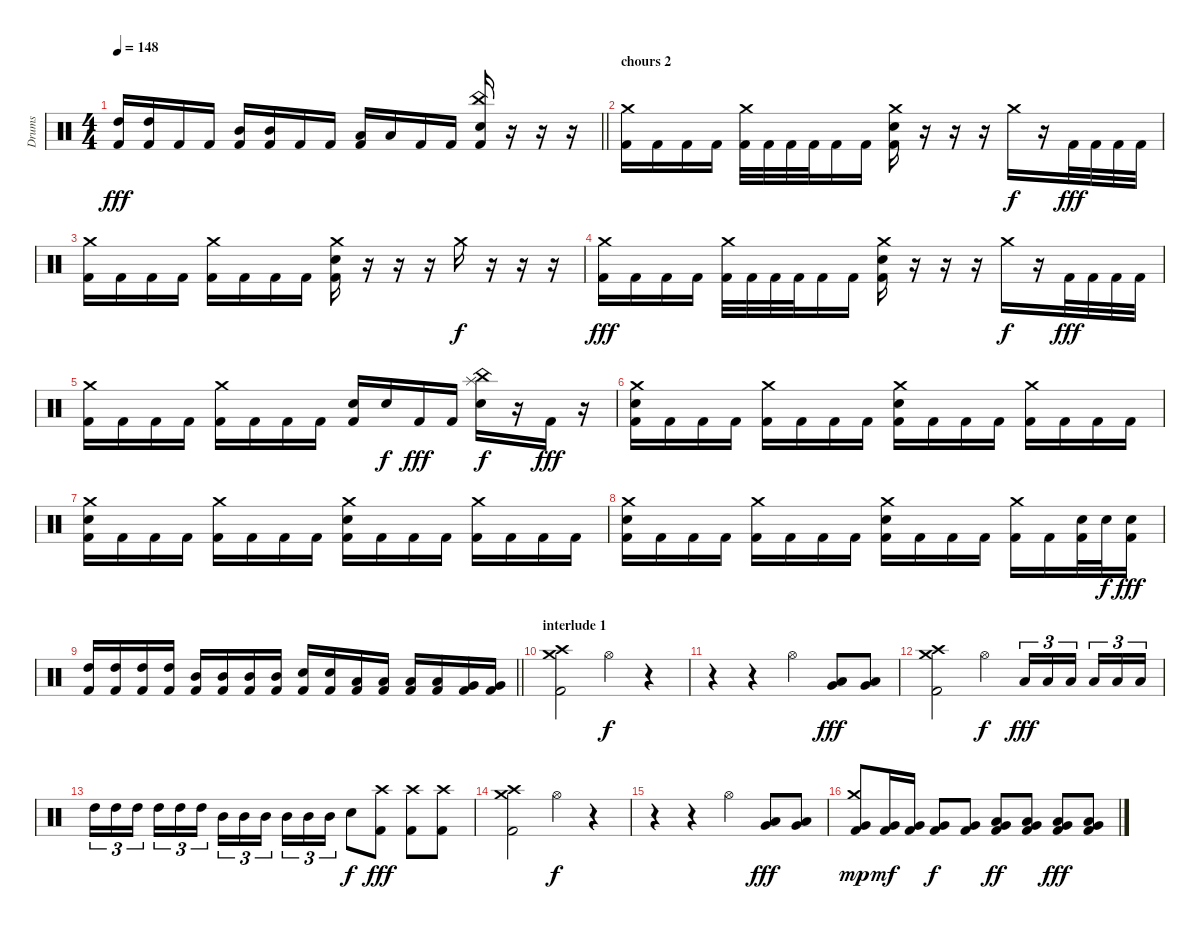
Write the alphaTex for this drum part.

\track ("Drums" "Drums") {instrument percussion}
\staff {score}
\articulation defaults
\ts (4 4)
\tempo 148
\clef neutral
\barLineRight lightlight
\ks c
("High Tom (hit)" "Kick (hit) 2").16{dy fff} ("High Tom (hit)" "Kick (hit) 2").16 "Kick (hit) 2".16 "Kick (hit) 2".16 ("Mid Tom (hit)" "Kick (hit) 2").16 ("Mid Tom (hit)" "Kick (hit) 2").16 "Kick (hit) 2".16 "Kick (hit) 2".16 ("Low Tom (hit)" "Kick (hit) 2").16 "Low Tom (hit)".16 "Kick (hit) 2".16 "Kick (hit) 2".16 ("China (hit)" "Electric Snare (hit)" "Kick (hit) 2").16 r.16 r.16 r.16 |
\section ("" "chours 2")
("Crash medium (hit)" "Kick (hit) 2").16 "Kick (hit) 2".16 "Kick (hit) 2".16 "Kick (hit) 2".16 ("Crash medium (hit)" "Kick (hit) 2").32 "Kick (hit) 2".32 "Kick (hit) 2".32 "Kick (hit) 2".32 "Kick (hit) 2".16 "Kick (hit) 2".16 ("Crash medium (hit)" "Electric Snare (hit)" "Kick (hit) 2").16 r.16 r.16 r.16 "Crash medium (hit)".16{dy f} r.16 "Kick (hit) 2".32{dy fff} "Kick (hit) 2".32 "Kick (hit) 2".32 "Kick (hit) 2".32 |
("Crash medium (hit)" "Kick (hit) 2").16 "Kick (hit) 2".16 "Kick (hit) 2".16 "Kick (hit) 2".16 ("Crash medium (hit)" "Kick (hit) 2").16 "Kick (hit) 2".16 "Kick (hit) 2".16 "Kick (hit) 2".16 ("Crash medium (hit)" "Electric Snare (hit)" "Kick (hit) 2").16 r.16 r.16 r.16 "Crash medium (hit)".16{dy f} r.16 r.16 r.16 |
("Crash medium (hit)" "Kick (hit) 2").16{dy fff} "Kick (hit) 2".16 "Kick (hit) 2".16 "Kick (hit) 2".16 ("Crash medium (hit)" "Kick (hit) 2").32 "Kick (hit) 2".32 "Kick (hit) 2".32 "Kick (hit) 2".32 "Kick (hit) 2".16 "Kick (hit) 2".16 ("Crash medium (hit)" "Electric Snare (hit)" "Kick (hit) 2").16 r.16 r.16 r.16 "Crash medium (hit)".16{dy f} r.16 "Kick (hit) 2".32{dy fff} "Kick (hit) 2".32 "Kick (hit) 2".32 "Kick (hit) 2".32 |
("Crash medium (hit)" "Kick (hit) 2").16 "Kick (hit) 2".16 "Kick (hit) 2".16 "Kick (hit) 2".16 ("Crash medium (hit)" "Kick (hit) 2").16 "Kick (hit) 2".16 "Kick (hit) 2".16 "Kick (hit) 2".16 ("Electric Snare (hit)" "Kick (hit) 2").16 "Electric Snare (hit)".16{dy f} "Kick (hit) 2".16{dy fff} "Kick (hit) 2".16 ("China (hit)" "Splash (hit)" "Electric Snare (hit)").16{dy f} r.16 "Kick (hit) 2".16{dy fff} r.16 |
("Crash medium (hit)" "Electric Snare (hit)" "Kick (hit) 2").16 "Kick (hit) 2".16 "Kick (hit) 2".16 "Kick (hit) 2".16 ("Crash medium (hit)" "Kick (hit) 2").16 "Kick (hit) 2".16 "Kick (hit) 2".16 "Kick (hit) 2".16 ("Crash medium (hit)" "Electric Snare (hit)" "Kick (hit) 2").16 "Kick (hit) 2".16 "Kick (hit) 2".16 "Kick (hit) 2".16 ("Crash medium (hit)" "Kick (hit) 2").16 "Kick (hit) 2".16 "Kick (hit) 2".16 "Kick (hit) 2".16 |
("Crash medium (hit)" "Electric Snare (hit)" "Kick (hit) 2").16 "Kick (hit) 2".16 "Kick (hit) 2".16 "Kick (hit) 2".16 ("Crash medium (hit)" "Kick (hit) 2").16 "Kick (hit) 2".16 "Kick (hit) 2".16 "Kick (hit) 2".16 ("Crash medium (hit)" "Electric Snare (hit)" "Kick (hit) 2").16 "Kick (hit) 2".16 "Kick (hit) 2".16 "Kick (hit) 2".16 ("Crash medium (hit)" "Kick (hit) 2").16 "Kick (hit) 2".16 "Kick (hit) 2".16 "Kick (hit) 2".16 |
("Crash medium (hit)" "Electric Snare (hit)" "Kick (hit) 2").16 "Kick (hit) 2".16 "Kick (hit) 2".16 "Kick (hit) 2".16 ("Crash medium (hit)" "Kick (hit) 2").16 "Kick (hit) 2".16 "Kick (hit) 2".16 "Kick (hit) 2".16 ("Crash medium (hit)" "Electric Snare (hit)" "Kick (hit) 2").16 "Kick (hit) 2".16 "Kick (hit) 2".16 "Kick (hit) 2".16 ("Crash medium (hit)" "Kick (hit) 2").16 "Kick (hit) 2".16 ("Electric Snare (hit)" "Kick (hit) 2").32 "Electric Snare (hit)".32{dy f} ("Electric Snare (hit)" "Kick (hit) 2").16{dy fff} |
\barLineRight lightlight
("High Tom (hit)" "Kick (hit) 2").16 ("High Tom (hit)" "Kick (hit) 2").16 ("High Tom (hit)" "Kick (hit) 2").16 ("High Tom (hit)" "Kick (hit) 2").16 ("Mid Tom (hit)" "Kick (hit) 2").16 ("Mid Tom (hit)" "Kick (hit) 2").16 ("Mid Tom (hit)" "Kick (hit) 2").16 ("Mid Tom (hit)" "Kick (hit) 2").16 ("Electric Snare (hit)" "Kick (hit) 2").16 ("Electric Snare (hit)" "Kick (hit) 2").16 ("Low Tom (hit)" "Kick (hit) 2").16 ("Low Tom (hit)" "Kick (hit) 2").16 ("Low Tom (hit)" "Kick (hit) 2").16 ("Low Tom (hit)" "Kick (hit) 2").16 ("Very Low Tom (hit)" "Kick (hit) 2").16 ("Very Low Tom (hit)" "Kick (hit) 2").16 |
\section ("" "interlude 1")
("Crash medium (hit)" "Crash high (hit)" "Kick (hit) 2").2 "Hi-Hat (open)".4{dy f} r.4 |
r.4 r.4 "Hi-Hat (open)".4 ("Low Tom (hit)" "Very Low Tom (hit)").8{dy fff} ("Low Tom (hit)" "Very Low Tom (hit)").8 |
("Crash medium (hit)" "Crash high (hit)" "Kick (hit) 2").2 "Hi-Hat (open)".4{dy f} "Low Tom (hit)".16{tu (3 2) dy fff} "Low Tom (hit)".16{tu (3 2)} "Low Tom (hit)".16{tu (3 2) beam splitsecondary} "Low Tom (hit)".16{tu (3 2)} "Low Tom (hit)".16{tu (3 2)} "Low Tom (hit)".16{tu (3 2)} |
"High Tom (hit)".16{tu (3 2)} "High Tom (hit)".16{tu (3 2)} "High Tom (hit)".16{tu (3 2) beam splitsecondary} "High Tom (hit)".16{tu (3 2)} "High Tom (hit)".16{tu (3 2)} "High Tom (hit)".16{tu (3 2)} "Mid Tom (hit)".16{tu (3 2)} "Mid Tom (hit)".16{tu (3 2)} "Mid Tom (hit)".16{tu (3 2) beam splitsecondary} "Mid Tom (hit)".16{tu (3 2)} "Mid Tom (hit)".16{tu (3 2)} "Mid Tom (hit)".16{tu (3 2)} "Electric Snare (hit)".8{dy f} ("Crash high (hit)" "Kick (hit) 2").8{dy fff} ("Crash high (hit)" "Kick (hit) 2").8 ("Crash high (hit)" "Kick (hit) 2").8 |
("Crash medium (hit)" "Crash high (hit)" "Kick (hit) 2").2 "Hi-Hat (open)".4{dy f} r.4 |
r.4 r.4 "Hi-Hat (open)".4 ("Low Tom (hit)" "Very Low Tom (hit)").8{dy fff} ("Low Tom (hit)" "Very Low Tom (hit)").8 |
("Crash medium (hit)" "Very Low Tom (hit)" "Kick (hit) 2").8{dy mp} ("Very Low Tom (hit)" "Kick (hit) 2").16{dy mf} ("Very Low Tom (hit)" "Kick (hit) 2").16 ("Very Low Tom (hit)" "Kick (hit) 2").8{dy f} ("Very Low Tom (hit)" "Kick (hit) 2").8 ("Low Tom (hit)" "Very Low Tom (hit)" "Kick (hit) 2").8{dy ff} ("Low Tom (hit)" "Very Low Tom (hit)" "Kick (hit) 2").8 ("Low Tom (hit)" "Very Low Tom (hit)" "Kick (hit) 2").8{dy fff} ("Low Tom (hit)" "Very Low Tom (hit)" "Kick (hit) 2").8
